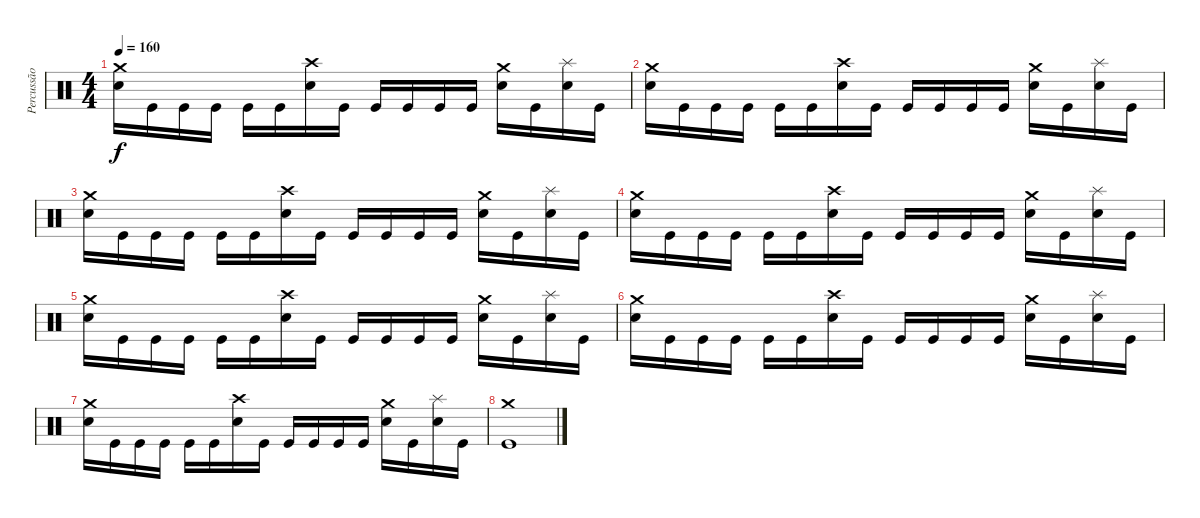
\track ("Percussão" "Percussão") {instrument percussion}
\staff {score}
\articulation defaults
\ts (4 4)
\tempo 160
\clef neutral
\ks c
("Crash medium (hit)" "Electric Snare (hit)").16{dy f} "Kick (hit)".16 "Kick (hit)".16 "Kick (hit)".16 "Kick (hit)".16 "Kick (hit)".16 ("Crash high (hit)" "Electric Snare (hit)").16 "Kick (hit)".16 "Kick (hit)".16 "Kick (hit)".16 "Kick (hit)".16 "Kick (hit)".16 ("Crash medium (hit)" "Electric Snare (hit)").16 "Kick (hit)".16 ("Splash (hit)" "Electric Snare (hit)").16 "Kick (hit)".16 |
("Crash medium (hit)" "Electric Snare (hit)").16 "Kick (hit)".16 "Kick (hit)".16 "Kick (hit)".16 "Kick (hit)".16 "Kick (hit)".16 ("Crash high (hit)" "Electric Snare (hit)").16 "Kick (hit)".16 "Kick (hit)".16 "Kick (hit)".16 "Kick (hit)".16 "Kick (hit)".16 ("Crash medium (hit)" "Electric Snare (hit)").16 "Kick (hit)".16 ("Splash (hit)" "Electric Snare (hit)").16 "Kick (hit)".16 |
("Crash medium (hit)" "Electric Snare (hit)").16{volume 7} "Kick (hit)".16 "Kick (hit)".16 "Kick (hit)".16 "Kick (hit)".16 "Kick (hit)".16 ("Crash high (hit)" "Electric Snare (hit)").16 "Kick (hit)".16 "Kick (hit)".16 "Kick (hit)".16 "Kick (hit)".16 "Kick (hit)".16 ("Crash medium (hit)" "Electric Snare (hit)").16 "Kick (hit)".16 ("Splash (hit)" "Electric Snare (hit)").16 "Kick (hit)".16 |
("Crash medium (hit)" "Electric Snare (hit)").16 "Kick (hit)".16 "Kick (hit)".16 "Kick (hit)".16 "Kick (hit)".16 "Kick (hit)".16 ("Crash high (hit)" "Electric Snare (hit)").16 "Kick (hit)".16 "Kick (hit)".16 "Kick (hit)".16 "Kick (hit)".16 "Kick (hit)".16 ("Crash medium (hit)" "Electric Snare (hit)").16 "Kick (hit)".16 ("Splash (hit)" "Electric Snare (hit)").16 "Kick (hit)".16 |
("Crash medium (hit)" "Electric Snare (hit)").16 "Kick (hit)".16 "Kick (hit)".16 "Kick (hit)".16 "Kick (hit)".16 "Kick (hit)".16 ("Crash high (hit)" "Electric Snare (hit)").16 "Kick (hit)".16 "Kick (hit)".16 "Kick (hit)".16 "Kick (hit)".16 "Kick (hit)".16 ("Crash medium (hit)" "Electric Snare (hit)").16 "Kick (hit)".16 ("Splash (hit)" "Electric Snare (hit)").16 "Kick (hit)".16 |
("Crash medium (hit)" "Electric Snare (hit)").16 "Kick (hit)".16 "Kick (hit)".16 "Kick (hit)".16 "Kick (hit)".16 "Kick (hit)".16 ("Crash high (hit)" "Electric Snare (hit)").16 "Kick (hit)".16 "Kick (hit)".16 "Kick (hit)".16 "Kick (hit)".16 "Kick (hit)".16 ("Crash medium (hit)" "Electric Snare (hit)").16 "Kick (hit)".16 ("Splash (hit)" "Electric Snare (hit)").16 "Kick (hit)".16 |
("Crash medium (hit)" "Electric Snare (hit)").16{volume 2} "Kick (hit)".16 "Kick (hit)".16 "Kick (hit)".16 "Kick (hit)".16 "Kick (hit)".16 ("Crash high (hit)" "Electric Snare (hit)").16 "Kick (hit)".16 "Kick (hit)".16 "Kick (hit)".16 "Kick (hit)".16 "Kick (hit)".16 ("Crash medium (hit)" "Electric Snare (hit)").16 "Kick (hit)".16 ("Splash (hit)" "Electric Snare (hit)").16 "Kick (hit)".16 |
("Crash medium (hit)" "Kick (hit)").1
